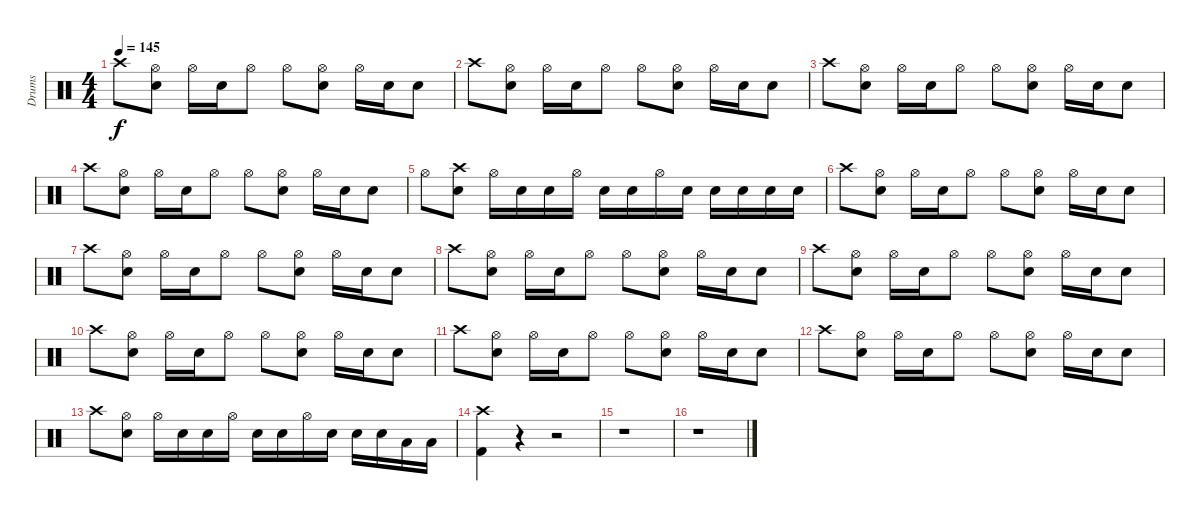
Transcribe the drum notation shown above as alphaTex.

\track ("Drums" "Drums") {instrument percussion}
\staff {score}
\articulation defaults
\ts (4 4)
\tempo 145
\clef neutral
\ks c "Crash high (hit)".8{dy f}
("Hi-Hat (open)" "Snare (hit) 2").8 "Hi-Hat (open)".16 "Snare (hit) 2".16 "Hi-Hat (open)".8 "Hi-Hat (open)".8 ("Hi-Hat (open)" "Snare (hit) 2").8 "Hi-Hat (open)".16 "Snare (hit) 2".16 "Snare (hit) 2".8 |
"Crash high (hit)".8 ("Hi-Hat (open)" "Snare (hit) 2").8 "Hi-Hat (open)".16 "Snare (hit) 2".16 "Hi-Hat (open)".8 "Hi-Hat (open)".8 ("Hi-Hat (open)" "Snare (hit) 2").8 "Hi-Hat (open)".16 "Snare (hit) 2".16 "Snare (hit) 2".8 |
"Crash high (hit)".8 ("Hi-Hat (open)" "Snare (hit) 2").8 "Hi-Hat (open)".16 "Snare (hit) 2".16 "Hi-Hat (open)".8 "Hi-Hat (open)".8 ("Hi-Hat (open)" "Snare (hit) 2").8 "Hi-Hat (open)".16 "Snare (hit) 2".16 "Snare (hit) 2".8 |
"Crash high (hit)".8 ("Hi-Hat (open)" "Snare (hit) 2").8 "Hi-Hat (open)".16 "Snare (hit) 2".16 "Hi-Hat (open)".8 "Hi-Hat (open)".8 ("Hi-Hat (open)" "Snare (hit) 2").8 "Hi-Hat (open)".16 "Snare (hit) 2".16 "Snare (hit) 2".8 |
"Hi-Hat (open)".8 ("Crash high (hit)" "Snare (hit) 2").8 "Hi-Hat (open)".16 "Snare (hit) 2".16 "Snare (hit) 2".16 "Hi-Hat (open)".16 "Snare (hit) 2".16 "Snare (hit) 2".16 "Hi-Hat (open)".16 "Snare (hit) 2".16 "Snare (hit) 2".16 "Snare (hit) 2".16 "Snare (hit) 2".16 "Snare (hit) 2".16 |
"Crash high (hit)".8 ("Hi-Hat (open)" "Snare (hit) 2").8 "Hi-Hat (open)".16 "Snare (hit) 2".16 "Hi-Hat (open)".8 "Hi-Hat (open)".8 ("Hi-Hat (open)" "Snare (hit) 2").8 "Hi-Hat (open)".16 "Snare (hit) 2".16 "Snare (hit) 2".8 |
"Crash high (hit)".8 ("Hi-Hat (open)" "Snare (hit) 2").8 "Hi-Hat (open)".16 "Snare (hit) 2".16 "Hi-Hat (open)".8 "Hi-Hat (open)".8 ("Hi-Hat (open)" "Snare (hit) 2").8 "Hi-Hat (open)".16 "Snare (hit) 2".16 "Snare (hit) 2".8 |
"Crash high (hit)".8 ("Hi-Hat (open)" "Snare (hit) 2").8 "Hi-Hat (open)".16 "Snare (hit) 2".16 "Hi-Hat (open)".8 "Hi-Hat (open)".8 ("Hi-Hat (open)" "Snare (hit) 2").8 "Hi-Hat (open)".16 "Snare (hit) 2".16 "Snare (hit) 2".8 |
"Crash high (hit)".8 ("Hi-Hat (open)" "Snare (hit) 2").8 "Hi-Hat (open)".16 "Snare (hit) 2".16 "Hi-Hat (open)".8 "Hi-Hat (open)".8 ("Hi-Hat (open)" "Snare (hit) 2").8 "Hi-Hat (open)".16 "Snare (hit) 2".16 "Snare (hit) 2".8 |
"Crash high (hit)".8 ("Hi-Hat (open)" "Snare (hit) 2").8 "Hi-Hat (open)".16 "Snare (hit) 2".16 "Hi-Hat (open)".8 "Hi-Hat (open)".8 ("Hi-Hat (open)" "Snare (hit) 2").8 "Hi-Hat (open)".16 "Snare (hit) 2".16 "Snare (hit) 2".8 |
"Crash high (hit)".8 ("Hi-Hat (open)" "Snare (hit) 2").8 "Hi-Hat (open)".16 "Snare (hit) 2".16 "Hi-Hat (open)".8 "Hi-Hat (open)".8 ("Hi-Hat (open)" "Snare (hit) 2").8 "Hi-Hat (open)".16 "Snare (hit) 2".16 "Snare (hit) 2".8 |
"Crash high (hit)".8 ("Hi-Hat (open)" "Snare (hit) 2").8 "Hi-Hat (open)".16 "Snare (hit) 2".16 "Hi-Hat (open)".8 "Hi-Hat (open)".8 ("Hi-Hat (open)" "Snare (hit) 2").8 "Hi-Hat (open)".16 "Snare (hit) 2".16 "Snare (hit) 2".8 |
"Crash high (hit)".8 ("Hi-Hat (open)" "Snare (hit) 2").8 "Hi-Hat (open)".16 "Snare (hit) 2".16 "Snare (hit) 2".16 "Hi-Hat (open)".16 "Snare (hit) 2".16 "Snare (hit) 2".16 "Hi-Hat (open)".16 "Snare (hit) 2".16 "Snare (hit) 2".16 "Snare (hit) 2".16 "Low Tom (hit)".16 "Low Tom (hit)".16 |
("Crash high (hit)" "Kick (hit) 2").4 r.4 r.2 |
r.1 |
r.1
